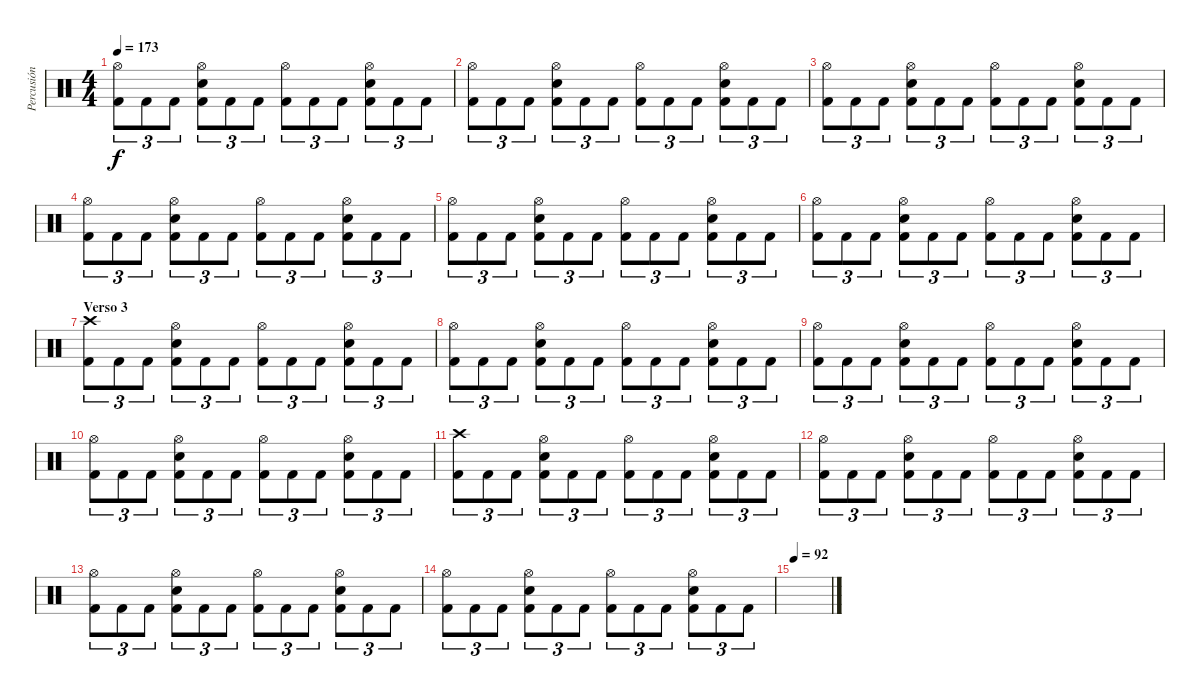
\track ("Percusión" "Percusión") {instrument percussion}
\staff {score}
\articulation defaults
\ts (4 4)
\tempo 173
\clef neutral
\ks c
("Hi-Hat (open)" "Kick (hit) 2").8{tu (3 2) dy f} "Kick (hit) 2".8{tu (3 2)} "Kick (hit) 2".8{tu (3 2)} ("Hi-Hat (open)" "Snare (hit) 2" "Kick (hit) 2").8{tu (3 2)} "Kick (hit) 2".8{tu (3 2)} "Kick (hit) 2".8{tu (3 2)} ("Hi-Hat (open)" "Kick (hit) 2").8{tu (3 2)} "Kick (hit) 2".8{tu (3 2)} "Kick (hit) 2".8{tu (3 2)} ("Hi-Hat (open)" "Snare (hit) 2" "Kick (hit) 2").8{tu (3 2)} "Kick (hit) 2".8{tu (3 2)} "Kick (hit) 2".8{tu (3 2)} |
("Hi-Hat (open)" "Kick (hit) 2").8{tu (3 2)} "Kick (hit) 2".8{tu (3 2)} "Kick (hit) 2".8{tu (3 2)} ("Hi-Hat (open)" "Snare (hit) 2" "Kick (hit) 2").8{tu (3 2)} "Kick (hit) 2".8{tu (3 2)} "Kick (hit) 2".8{tu (3 2)} ("Hi-Hat (open)" "Kick (hit) 2").8{tu (3 2)} "Kick (hit) 2".8{tu (3 2)} "Kick (hit) 2".8{tu (3 2)} ("Hi-Hat (open)" "Snare (hit) 2" "Kick (hit) 2").8{tu (3 2)} "Kick (hit) 2".8{tu (3 2)} "Kick (hit) 2".8{tu (3 2)} |
("Hi-Hat (open)" "Kick (hit) 2").8{tu (3 2)} "Kick (hit) 2".8{tu (3 2)} "Kick (hit) 2".8{tu (3 2)} ("Hi-Hat (open)" "Snare (hit) 2" "Kick (hit) 2").8{tu (3 2)} "Kick (hit) 2".8{tu (3 2)} "Kick (hit) 2".8{tu (3 2)} ("Hi-Hat (open)" "Kick (hit) 2").8{tu (3 2)} "Kick (hit) 2".8{tu (3 2)} "Kick (hit) 2".8{tu (3 2)} ("Hi-Hat (open)" "Snare (hit) 2" "Kick (hit) 2").8{tu (3 2)} "Kick (hit) 2".8{tu (3 2)} "Kick (hit) 2".8{tu (3 2)} |
("Hi-Hat (open)" "Kick (hit) 2").8{tu (3 2)} "Kick (hit) 2".8{tu (3 2)} "Kick (hit) 2".8{tu (3 2)} ("Hi-Hat (open)" "Snare (hit) 2" "Kick (hit) 2").8{tu (3 2)} "Kick (hit) 2".8{tu (3 2)} "Kick (hit) 2".8{tu (3 2)} ("Hi-Hat (open)" "Kick (hit) 2").8{tu (3 2)} "Kick (hit) 2".8{tu (3 2)} "Kick (hit) 2".8{tu (3 2)} ("Hi-Hat (open)" "Snare (hit) 2" "Kick (hit) 2").8{tu (3 2)} "Kick (hit) 2".8{tu (3 2)} "Kick (hit) 2".8{tu (3 2)} |
("Hi-Hat (open)" "Kick (hit) 2").8{tu (3 2)} "Kick (hit) 2".8{tu (3 2)} "Kick (hit) 2".8{tu (3 2)} ("Hi-Hat (open)" "Snare (hit) 2" "Kick (hit) 2").8{tu (3 2)} "Kick (hit) 2".8{tu (3 2)} "Kick (hit) 2".8{tu (3 2)} ("Hi-Hat (open)" "Kick (hit) 2").8{tu (3 2)} "Kick (hit) 2".8{tu (3 2)} "Kick (hit) 2".8{tu (3 2)} ("Hi-Hat (open)" "Snare (hit) 2" "Kick (hit) 2").8{tu (3 2)} "Kick (hit) 2".8{tu (3 2)} "Kick (hit) 2".8{tu (3 2)} |
("Hi-Hat (open)" "Kick (hit) 2").8{tu (3 2)} "Kick (hit) 2".8{tu (3 2)} "Kick (hit) 2".8{tu (3 2)} ("Hi-Hat (open)" "Snare (hit) 2" "Kick (hit) 2").8{tu (3 2)} "Kick (hit) 2".8{tu (3 2)} "Kick (hit) 2".8{tu (3 2)} ("Hi-Hat (open)" "Kick (hit) 2").8{tu (3 2)} "Kick (hit) 2".8{tu (3 2)} "Kick (hit) 2".8{tu (3 2)} ("Hi-Hat (open)" "Snare (hit) 2" "Kick (hit) 2").8{tu (3 2)} "Kick (hit) 2".8{tu (3 2)} "Kick (hit) 2".8{tu (3 2)} |
\section ("" "Verso 3")
("Crash high (hit)" "Kick (hit) 2").8{tu (3 2)} "Kick (hit) 2".8{tu (3 2)} "Kick (hit) 2".8{tu (3 2)} ("Hi-Hat (open)" "Snare (hit) 2" "Kick (hit) 2").8{tu (3 2)} "Kick (hit) 2".8{tu (3 2)} "Kick (hit) 2".8{tu (3 2)} ("Hi-Hat (open)" "Kick (hit) 2").8{tu (3 2)} "Kick (hit) 2".8{tu (3 2)} "Kick (hit) 2".8{tu (3 2)} ("Hi-Hat (open)" "Snare (hit) 2" "Kick (hit) 2").8{tu (3 2)} "Kick (hit) 2".8{tu (3 2)} "Kick (hit) 2".8{tu (3 2)} |
("Hi-Hat (open)" "Kick (hit) 2").8{tu (3 2)} "Kick (hit) 2".8{tu (3 2)} "Kick (hit) 2".8{tu (3 2)} ("Hi-Hat (open)" "Snare (hit) 2" "Kick (hit) 2").8{tu (3 2)} "Kick (hit) 2".8{tu (3 2)} "Kick (hit) 2".8{tu (3 2)} ("Hi-Hat (open)" "Kick (hit) 2").8{tu (3 2)} "Kick (hit) 2".8{tu (3 2)} "Kick (hit) 2".8{tu (3 2)} ("Hi-Hat (open)" "Snare (hit) 2" "Kick (hit) 2").8{tu (3 2)} "Kick (hit) 2".8{tu (3 2)} "Kick (hit) 2".8{tu (3 2)} |
("Hi-Hat (open)" "Kick (hit) 2").8{tu (3 2)} "Kick (hit) 2".8{tu (3 2)} "Kick (hit) 2".8{tu (3 2)} ("Hi-Hat (open)" "Snare (hit) 2" "Kick (hit) 2").8{tu (3 2)} "Kick (hit) 2".8{tu (3 2)} "Kick (hit) 2".8{tu (3 2)} ("Hi-Hat (open)" "Kick (hit) 2").8{tu (3 2)} "Kick (hit) 2".8{tu (3 2)} "Kick (hit) 2".8{tu (3 2)} ("Hi-Hat (open)" "Snare (hit) 2" "Kick (hit) 2").8{tu (3 2)} "Kick (hit) 2".8{tu (3 2)} "Kick (hit) 2".8{tu (3 2)} |
("Hi-Hat (open)" "Kick (hit) 2").8{tu (3 2)} "Kick (hit) 2".8{tu (3 2)} "Kick (hit) 2".8{tu (3 2)} ("Hi-Hat (open)" "Snare (hit) 2" "Kick (hit) 2").8{tu (3 2)} "Kick (hit) 2".8{tu (3 2)} "Kick (hit) 2".8{tu (3 2)} ("Hi-Hat (open)" "Kick (hit) 2").8{tu (3 2)} "Kick (hit) 2".8{tu (3 2)} "Kick (hit) 2".8{tu (3 2)} ("Hi-Hat (open)" "Snare (hit) 2" "Kick (hit) 2").8{tu (3 2)} "Kick (hit) 2".8{tu (3 2)} "Kick (hit) 2".8{tu (3 2)} |
("Crash high (hit)" "Kick (hit) 2").8{tu (3 2)} "Kick (hit) 2".8{tu (3 2)} "Kick (hit) 2".8{tu (3 2)} ("Hi-Hat (open)" "Snare (hit) 2" "Kick (hit) 2").8{tu (3 2)} "Kick (hit) 2".8{tu (3 2)} "Kick (hit) 2".8{tu (3 2)} ("Hi-Hat (open)" "Kick (hit) 2").8{tu (3 2)} "Kick (hit) 2".8{tu (3 2)} "Kick (hit) 2".8{tu (3 2)} ("Hi-Hat (open)" "Snare (hit) 2" "Kick (hit) 2").8{tu (3 2)} "Kick (hit) 2".8{tu (3 2)} "Kick (hit) 2".8{tu (3 2)} |
("Hi-Hat (open)" "Kick (hit) 2").8{tu (3 2)} "Kick (hit) 2".8{tu (3 2)} "Kick (hit) 2".8{tu (3 2)} ("Hi-Hat (open)" "Snare (hit) 2" "Kick (hit) 2").8{tu (3 2)} "Kick (hit) 2".8{tu (3 2)} "Kick (hit) 2".8{tu (3 2)} ("Hi-Hat (open)" "Kick (hit) 2").8{tu (3 2)} "Kick (hit) 2".8{tu (3 2)} "Kick (hit) 2".8{tu (3 2)} ("Hi-Hat (open)" "Snare (hit) 2" "Kick (hit) 2").8{tu (3 2)} "Kick (hit) 2".8{tu (3 2)} "Kick (hit) 2".8{tu (3 2)} |
("Hi-Hat (open)" "Kick (hit) 2").8{tu (3 2)} "Kick (hit) 2".8{tu (3 2)} "Kick (hit) 2".8{tu (3 2)} ("Hi-Hat (open)" "Snare (hit) 2" "Kick (hit) 2").8{tu (3 2)} "Kick (hit) 2".8{tu (3 2)} "Kick (hit) 2".8{tu (3 2)} ("Hi-Hat (open)" "Kick (hit) 2").8{tu (3 2)} "Kick (hit) 2".8{tu (3 2)} "Kick (hit) 2".8{tu (3 2)} ("Hi-Hat (open)" "Snare (hit) 2" "Kick (hit) 2").8{tu (3 2)} "Kick (hit) 2".8{tu (3 2)} "Kick (hit) 2".8{tu (3 2)} |
("Hi-Hat (open)" "Kick (hit) 2").8{tu (3 2)} "Kick (hit) 2".8{tu (3 2)} "Kick (hit) 2".8{tu (3 2)} ("Hi-Hat (open)" "Snare (hit) 2" "Kick (hit) 2").8{tu (3 2)} "Kick (hit) 2".8{tu (3 2)} "Kick (hit) 2".8{tu (3 2)} ("Hi-Hat (open)" "Kick (hit) 2").8{tu (3 2)} "Kick (hit) 2".8{tu (3 2)} "Kick (hit) 2".8{tu (3 2)} ("Hi-Hat (open)" "Snare (hit) 2" "Kick (hit) 2").8{tu (3 2)} "Kick (hit) 2".8{tu (3 2)} "Kick (hit) 2".8{tu (3 2)} |
\tempo 92
